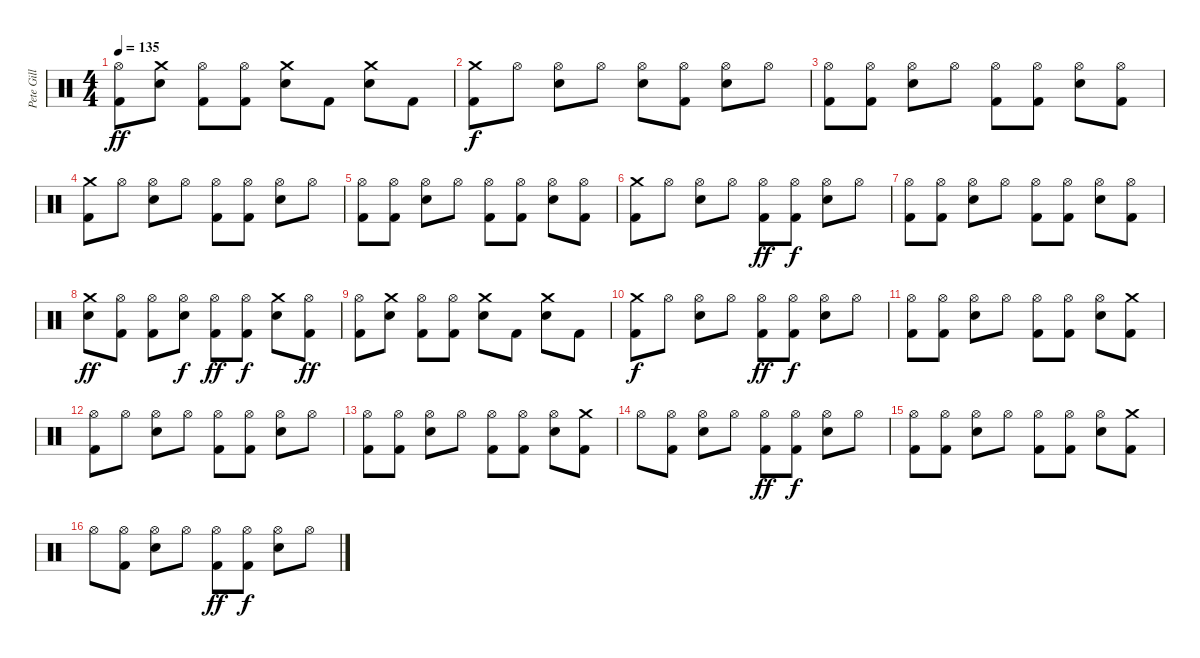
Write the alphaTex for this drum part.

\track ("Pete Gill" "Pete Gill") {instrument percussion}
\staff {score}
\articulation defaults
\ts (4 4)
\tempo 135
\clef neutral
\ks c
("Hi-Hat (open)" "Kick (hit) 2").8{dy ff} ("Crash medium (hit)" "Snare (hit) 2").8 ("Hi-Hat (open)" "Kick (hit) 2").8 ("Hi-Hat (open)" "Kick (hit) 2").8 ("Crash medium (hit)" "Snare (hit) 2").8 "Kick (hit) 2".8 ("Crash medium (hit)" "Snare (hit) 2").8 "Kick (hit) 2".8 |
("Crash medium (hit)" "Kick (hit) 2").8{dy f} "Hi-Hat (open)".8 ("Hi-Hat (open)" "Snare (hit) 2").8 "Hi-Hat (open)".8 ("Hi-Hat (open)" "Snare (hit) 2").8 ("Hi-Hat (open)" "Kick (hit) 2").8 ("Hi-Hat (open)" "Snare (hit) 2").8 "Hi-Hat (open)".8 |
("Hi-Hat (open)" "Kick (hit) 2").8 ("Hi-Hat (open)" "Kick (hit) 2").8 ("Hi-Hat (open)" "Snare (hit) 2").8 "Hi-Hat (open)".8 ("Hi-Hat (open)" "Kick (hit) 2").8 ("Hi-Hat (open)" "Kick (hit) 2").8 ("Hi-Hat (open)" "Snare (hit) 2").8 ("Hi-Hat (open)" "Kick (hit) 2").8 |
("Crash medium (hit)" "Kick (hit) 2").8 "Hi-Hat (open)".8 ("Hi-Hat (open)" "Snare (hit) 2").8 "Hi-Hat (open)".8 ("Hi-Hat (open)" "Kick (hit) 2").8 ("Hi-Hat (open)" "Kick (hit) 2").8 ("Hi-Hat (open)" "Snare (hit) 2").8 "Hi-Hat (open)".8 |
("Hi-Hat (open)" "Kick (hit) 2").8 ("Hi-Hat (open)" "Kick (hit) 2").8 ("Hi-Hat (open)" "Snare (hit) 2").8 "Hi-Hat (open)".8 ("Hi-Hat (open)" "Kick (hit) 2").8 ("Hi-Hat (open)" "Kick (hit) 2").8 ("Hi-Hat (open)" "Snare (hit) 2").8 ("Hi-Hat (open)" "Kick (hit) 2").8 |
("Crash medium (hit)" "Kick (hit) 2").8 "Hi-Hat (open)".8 ("Hi-Hat (open)" "Snare (hit) 2").8 "Hi-Hat (open)".8 ("Hi-Hat (open)" "Kick (hit) 2").8{dy ff} ("Hi-Hat (open)" "Kick (hit) 2").8{dy f} ("Hi-Hat (open)" "Snare (hit) 2").8 "Hi-Hat (open)".8 |
("Hi-Hat (open)" "Kick (hit) 2").8 ("Hi-Hat (open)" "Kick (hit) 2").8 ("Hi-Hat (open)" "Snare (hit) 2").8 "Hi-Hat (open)".8 ("Hi-Hat (open)" "Kick (hit) 2").8 ("Hi-Hat (open)" "Kick (hit) 2").8 ("Hi-Hat (open)" "Snare (hit) 2").8 ("Hi-Hat (open)" "Kick (hit) 2").8 |
("Crash medium (hit)" "Snare (hit) 2").8{dy ff} ("Hi-Hat (open)" "Kick (hit) 2").8 ("Hi-Hat (open)" "Kick (hit) 2").8 ("Hi-Hat (open)" "Snare (hit) 2").8{dy f} ("Hi-Hat (open)" "Kick (hit) 2").8{dy ff} ("Hi-Hat (open)" "Kick (hit) 2").8{dy f} ("Crash medium (hit)" "Snare (hit) 2").8 ("Hi-Hat (open)" "Kick (hit) 2").8{dy ff} |
("Hi-Hat (open)" "Kick (hit) 2").8 ("Crash medium (hit)" "Snare (hit) 2").8 ("Hi-Hat (open)" "Kick (hit) 2").8 ("Hi-Hat (open)" "Kick (hit) 2").8 ("Crash medium (hit)" "Snare (hit) 2").8 "Kick (hit) 2".8 ("Crash medium (hit)" "Snare (hit) 2").8 "Kick (hit) 2".8 |
("Crash medium (hit)" "Kick (hit) 2").8{dy f} "Hi-Hat (open)".8 ("Hi-Hat (open)" "Snare (hit) 2").8 "Hi-Hat (open)".8 ("Hi-Hat (open)" "Kick (hit) 2").8{dy ff} ("Hi-Hat (open)" "Kick (hit) 2").8{dy f} ("Hi-Hat (open)" "Snare (hit) 2").8 "Hi-Hat (open)".8 |
("Hi-Hat (open)" "Kick (hit) 2").8 ("Hi-Hat (open)" "Kick (hit) 2").8 ("Hi-Hat (open)" "Snare (hit) 2").8 "Hi-Hat (open)".8 ("Hi-Hat (open)" "Kick (hit) 2").8 ("Hi-Hat (open)" "Kick (hit) 2").8 ("Hi-Hat (open)" "Snare (hit) 2").8 ("Kick (hit) 2" "Crash medium (hit)").8 |
("Kick (hit) 2" "Hi-Hat (open)").8 "Hi-Hat (open)".8 ("Hi-Hat (open)" "Snare (hit) 2").8 "Hi-Hat (open)".8 ("Hi-Hat (open)" "Kick (hit) 2").8 ("Hi-Hat (open)" "Kick (hit) 2").8 ("Hi-Hat (open)" "Snare (hit) 2").8 "Hi-Hat (open)".8 |
("Hi-Hat (open)" "Kick (hit) 2").8 ("Hi-Hat (open)" "Kick (hit) 2").8 ("Hi-Hat (open)" "Snare (hit) 2").8 "Hi-Hat (open)".8 ("Hi-Hat (open)" "Kick (hit) 2").8 ("Hi-Hat (open)" "Kick (hit) 2").8 ("Hi-Hat (open)" "Snare (hit) 2").8 ("Kick (hit) 2" "Crash medium (hit)").8 |
"Hi-Hat (open)".8 ("Hi-Hat (open)" "Kick (hit) 2").8 ("Hi-Hat (open)" "Snare (hit) 2").8 "Hi-Hat (open)".8 ("Hi-Hat (open)" "Kick (hit) 2").8{dy ff} ("Hi-Hat (open)" "Kick (hit) 2").8{dy f} ("Hi-Hat (open)" "Snare (hit) 2").8 "Hi-Hat (open)".8 |
("Hi-Hat (open)" "Kick (hit) 2").8 ("Hi-Hat (open)" "Kick (hit) 2").8 ("Hi-Hat (open)" "Snare (hit) 2").8 "Hi-Hat (open)".8 ("Hi-Hat (open)" "Kick (hit) 2").8 ("Hi-Hat (open)" "Kick (hit) 2").8 ("Hi-Hat (open)" "Snare (hit) 2").8 ("Kick (hit) 2" "Crash medium (hit)").8 |
"Hi-Hat (open)".8 ("Hi-Hat (open)" "Kick (hit) 2").8 ("Hi-Hat (open)" "Snare (hit) 2").8 "Hi-Hat (open)".8 ("Hi-Hat (open)" "Kick (hit) 2").8{dy ff} ("Hi-Hat (open)" "Kick (hit) 2").8{dy f} ("Hi-Hat (open)" "Snare (hit) 2").8 "Hi-Hat (open)".8
